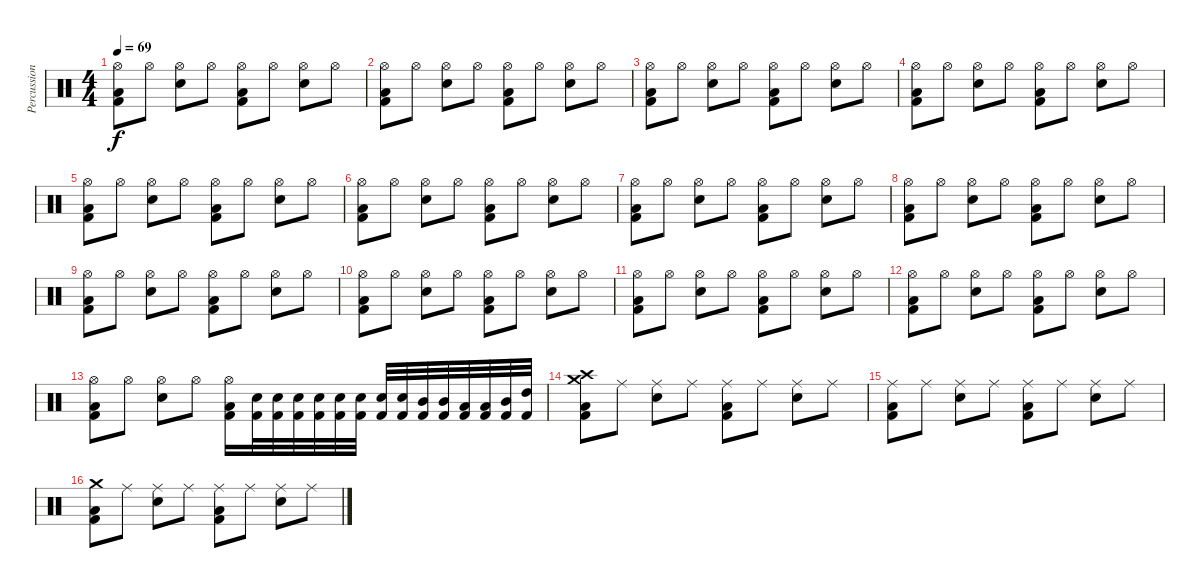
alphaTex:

\track ("Percussions" "Percussion") {instrument percussion}
\staff {score}
\articulation defaults
\ts (4 4)
\tempo 69
\clef neutral
\ks c
("Hi-Hat (open)" "Low Floor Tom (hit)" "Kick (hit) 2").8{dy f} "Hi-Hat (open)".8 ("Hi-Hat (open)" "Electric Snare (hit)").8 "Hi-Hat (open)".8 ("Hi-Hat (open)" "Low Floor Tom (hit)" "Kick (hit) 2").8 "Hi-Hat (open)".8 ("Hi-Hat (open)" "Electric Snare (hit)").8 "Hi-Hat (open)".8 |
("Hi-Hat (open)" "Low Floor Tom (hit)" "Kick (hit) 2").8 "Hi-Hat (open)".8 ("Hi-Hat (open)" "Electric Snare (hit)").8 "Hi-Hat (open)".8 ("Hi-Hat (open)" "Low Floor Tom (hit)" "Kick (hit) 2").8 "Hi-Hat (open)".8 ("Hi-Hat (open)" "Electric Snare (hit)").8 "Hi-Hat (open)".8 |
("Hi-Hat (open)" "Low Floor Tom (hit)" "Kick (hit) 2").8 "Hi-Hat (open)".8 ("Hi-Hat (open)" "Electric Snare (hit)").8 "Hi-Hat (open)".8 ("Hi-Hat (open)" "Low Floor Tom (hit)" "Kick (hit) 2").8 "Hi-Hat (open)".8 ("Hi-Hat (open)" "Electric Snare (hit)").8 "Hi-Hat (open)".8 |
("Hi-Hat (open)" "Low Floor Tom (hit)" "Kick (hit) 2").8 "Hi-Hat (open)".8 ("Hi-Hat (open)" "Electric Snare (hit)").8 "Hi-Hat (open)".8 ("Hi-Hat (open)" "Low Floor Tom (hit)" "Kick (hit) 2").8 "Hi-Hat (open)".8 ("Hi-Hat (open)" "Electric Snare (hit)").8 "Hi-Hat (open)".8 |
("Hi-Hat (open)" "Low Floor Tom (hit)" "Kick (hit) 2").8 "Hi-Hat (open)".8 ("Hi-Hat (open)" "Electric Snare (hit)").8 "Hi-Hat (open)".8 ("Hi-Hat (open)" "Low Floor Tom (hit)" "Kick (hit) 2").8 "Hi-Hat (open)".8 ("Hi-Hat (open)" "Electric Snare (hit)").8 "Hi-Hat (open)".8 |
("Hi-Hat (open)" "Low Floor Tom (hit)" "Kick (hit) 2").8 "Hi-Hat (open)".8 ("Hi-Hat (open)" "Electric Snare (hit)").8 "Hi-Hat (open)".8 ("Hi-Hat (open)" "Low Floor Tom (hit)" "Kick (hit) 2").8 "Hi-Hat (open)".8 ("Hi-Hat (open)" "Electric Snare (hit)").8 "Hi-Hat (open)".8 |
("Hi-Hat (open)" "Low Floor Tom (hit)" "Kick (hit) 2").8 "Hi-Hat (open)".8 ("Hi-Hat (open)" "Electric Snare (hit)").8 "Hi-Hat (open)".8 ("Hi-Hat (open)" "Low Floor Tom (hit)" "Kick (hit) 2").8 "Hi-Hat (open)".8 ("Hi-Hat (open)" "Electric Snare (hit)").8 "Hi-Hat (open)".8 |
("Hi-Hat (open)" "Low Floor Tom (hit)" "Kick (hit) 2").8 "Hi-Hat (open)".8 ("Hi-Hat (open)" "Electric Snare (hit)").8 "Hi-Hat (open)".8 ("Hi-Hat (open)" "Low Floor Tom (hit)" "Kick (hit) 2").8 "Hi-Hat (open)".8 ("Hi-Hat (open)" "Electric Snare (hit)").8 "Hi-Hat (open)".8 |
("Hi-Hat (open)" "Low Floor Tom (hit)" "Kick (hit) 2").8 "Hi-Hat (open)".8 ("Hi-Hat (open)" "Electric Snare (hit)").8 "Hi-Hat (open)".8 ("Hi-Hat (open)" "Low Floor Tom (hit)" "Kick (hit) 2").8 "Hi-Hat (open)".8 ("Hi-Hat (open)" "Electric Snare (hit)").8 "Hi-Hat (open)".8 |
("Hi-Hat (open)" "Low Floor Tom (hit)" "Kick (hit) 2").8 "Hi-Hat (open)".8 ("Hi-Hat (open)" "Electric Snare (hit)").8 "Hi-Hat (open)".8 ("Hi-Hat (open)" "Low Floor Tom (hit)" "Kick (hit) 2").8 "Hi-Hat (open)".8 ("Hi-Hat (open)" "Electric Snare (hit)").8 "Hi-Hat (open)".8 |
("Hi-Hat (open)" "Low Floor Tom (hit)" "Kick (hit) 2").8 "Hi-Hat (open)".8 ("Hi-Hat (open)" "Electric Snare (hit)").8 "Hi-Hat (open)".8 ("Hi-Hat (open)" "Low Floor Tom (hit)" "Kick (hit) 2").8 "Hi-Hat (open)".8 ("Hi-Hat (open)" "Electric Snare (hit)").8 "Hi-Hat (open)".8 |
("Hi-Hat (open)" "Low Floor Tom (hit)" "Kick (hit) 2").8 "Hi-Hat (open)".8 ("Hi-Hat (open)" "Electric Snare (hit)").8 "Hi-Hat (open)".8 ("Hi-Hat (open)" "Low Floor Tom (hit)" "Kick (hit) 2").8 "Hi-Hat (open)".8 ("Hi-Hat (open)" "Electric Snare (hit)").8 "Hi-Hat (open)".8 |
("Hi-Hat (open)" "Low Floor Tom (hit)" "Kick (hit) 2").8 "Hi-Hat (open)".8 ("Hi-Hat (open)" "Electric Snare (hit)").8 "Hi-Hat (open)".8 ("Hi-Hat (open)" "Low Floor Tom (hit)" "Kick (hit) 2").16 ("Electric Snare (hit)" "Kick (hit) 2").32 ("Electric Snare (hit)" "Kick (hit) 2").32 ("Electric Snare (hit)" "Kick (hit) 2").32 ("Snare (hit) 2" "Kick (hit) 2").32 ("Snare (hit) 2" "Kick (hit) 2").32 ("Snare (hit) 2" "Kick (hit) 2").32 ("Electric Snare (hit)" "Kick (hit) 2").32 ("Electric Snare (hit)" "Kick (hit) 2").32 ("Mid Tom (hit)" "Kick (hit) 2").32 ("Mid Tom (hit)" "Kick (hit) 2").32 ("Low Tom (hit)" "Kick (hit) 2").32 ("Low Tom (hit)" "Kick (hit) 2").32 ("Mid Tom (hit)" "Kick (hit) 2").32 ("High Tom (hit)" "Kick (hit) 2").32 |
("Crash medium (hit)" "Crash high (hit)" "Low Tom (hit)" "Kick (hit) 2").8 "Ride (middle)".8 ("Ride (middle)" "Electric Snare (hit)").8 "Ride (middle)".8 ("Ride (middle)" "Low Floor Tom (hit)" "Kick (hit) 2").8 "Ride (middle)".8 ("Ride (middle)" "Electric Snare (hit)").8 "Ride (middle)".8 |
("Ride (middle)" "Low Floor Tom (hit)" "Kick (hit) 2").8 "Ride (middle)".8 ("Ride (middle)" "Electric Snare (hit)").8 "Ride (middle)".8 ("Ride (middle)" "Low Floor Tom (hit)" "Kick (hit) 2").8 "Ride (middle)".8 ("Ride (middle)" "Electric Snare (hit)").8 "Ride (middle)".8 |
("Crash medium (hit)" "Low Floor Tom (hit)" "Kick (hit) 2").8 "Ride (middle)".8 ("Ride (middle)" "Electric Snare (hit)").8 "Ride (middle)".8 ("Ride (middle)" "Low Floor Tom (hit)" "Kick (hit) 2").8 "Ride (middle)".8 ("Ride (middle)" "Electric Snare (hit)").8 "Ride (middle)".8
